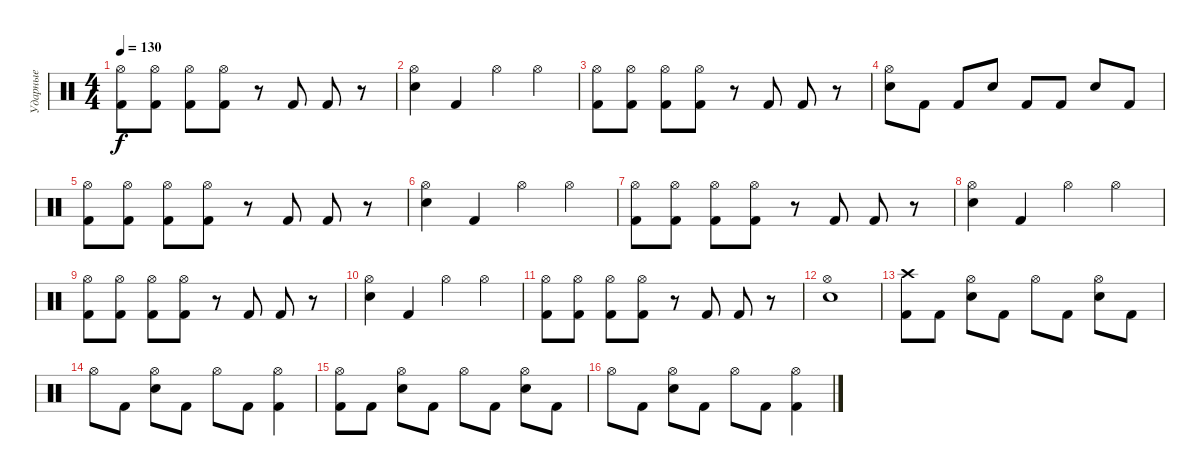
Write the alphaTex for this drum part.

\track ("Ударные" "Ударные") {instrument percussion}
\staff {score}
\articulation defaults
\ts (4 4)
\tempo 130
\clef neutral
\ks c
("Hi-Hat (open)" "Kick (hit) 2").8{dy f} ("Hi-Hat (open)" "Kick (hit) 2").8 ("Hi-Hat (open)" "Kick (hit) 2").8 ("Hi-Hat (open)" "Kick (hit) 2").8 r.8 "Kick (hit) 2".8 "Kick (hit) 2".8 r.8 |
("Hi-Hat (open)" "Snare (hit) 2").4 "Kick (hit) 2".4 "Hi-Hat (open)".4 "Hi-Hat (open)".4 |
("Hi-Hat (open)" "Kick (hit) 2").8 ("Hi-Hat (open)" "Kick (hit) 2").8 ("Hi-Hat (open)" "Kick (hit) 2").8 ("Hi-Hat (open)" "Kick (hit) 2").8 r.8 "Kick (hit) 2".8 "Kick (hit) 2".8 r.8 |
("Hi-Hat (open)" "Snare (hit) 2").8 "Kick (hit) 2".8 "Kick (hit) 2".8 "Snare (hit) 2".8 "Kick (hit) 2".8 "Kick (hit) 2".8 "Snare (hit) 2".8 "Kick (hit) 2".8 |
("Hi-Hat (open)" "Kick (hit) 2").8 ("Hi-Hat (open)" "Kick (hit) 2").8 ("Hi-Hat (open)" "Kick (hit) 2").8 ("Hi-Hat (open)" "Kick (hit) 2").8 r.8 "Kick (hit) 2".8 "Kick (hit) 2".8 r.8 |
("Hi-Hat (open)" "Snare (hit) 2").4 "Kick (hit) 2".4 "Hi-Hat (open)".4 "Hi-Hat (open)".4 |
("Hi-Hat (open)" "Kick (hit) 2").8 ("Hi-Hat (open)" "Kick (hit) 2").8 ("Hi-Hat (open)" "Kick (hit) 2").8 ("Hi-Hat (open)" "Kick (hit) 2").8 r.8 "Kick (hit) 2".8 "Kick (hit) 2".8 r.8 |
("Hi-Hat (open)" "Snare (hit) 2").4 "Kick (hit) 2".4 "Hi-Hat (open)".4 "Hi-Hat (open)".4 |
("Hi-Hat (open)" "Kick (hit) 2").8 ("Hi-Hat (open)" "Kick (hit) 2").8 ("Hi-Hat (open)" "Kick (hit) 2").8 ("Hi-Hat (open)" "Kick (hit) 2").8 r.8 "Kick (hit) 2".8 "Kick (hit) 2".8 r.8 |
("Hi-Hat (open)" "Snare (hit) 2").4 "Kick (hit) 2".4 "Hi-Hat (open)".4 "Hi-Hat (open)".4 |
("Hi-Hat (open)" "Kick (hit) 2").8 ("Hi-Hat (open)" "Kick (hit) 2").8 ("Hi-Hat (open)" "Kick (hit) 2").8 ("Hi-Hat (open)" "Kick (hit) 2").8 r.8 "Kick (hit) 2".8 "Kick (hit) 2".8 r.8 |
("Hi-Hat (open)" "Snare (hit) 2").1 |
("Crash high (hit)" "Kick (hit) 2").8 "Kick (hit) 2".8 ("Hi-Hat (open)" "Snare (hit) 2").8 "Kick (hit) 2".8 "Hi-Hat (open)".8 "Kick (hit) 2".8 ("Hi-Hat (open)" "Snare (hit) 2").8 "Kick (hit) 2".8 |
"Hi-Hat (open)".8 "Kick (hit) 2".8 ("Hi-Hat (open)" "Snare (hit) 2").8 "Kick (hit) 2".8 "Hi-Hat (open)".8 "Kick (hit) 2".8 ("Hi-Hat (open)" "Kick (hit) 2").4 |
("Hi-Hat (open)" "Kick (hit) 2").8 "Kick (hit) 2".8 ("Hi-Hat (open)" "Snare (hit) 2").8 "Kick (hit) 2".8 "Hi-Hat (open)".8 "Kick (hit) 2".8 ("Hi-Hat (open)" "Snare (hit) 2").8 "Kick (hit) 2".8 |
"Hi-Hat (open)".8 "Kick (hit) 2".8 ("Hi-Hat (open)" "Snare (hit) 2").8 "Kick (hit) 2".8 "Hi-Hat (open)".8 "Kick (hit) 2".8 ("Hi-Hat (open)" "Kick (hit) 2").4
